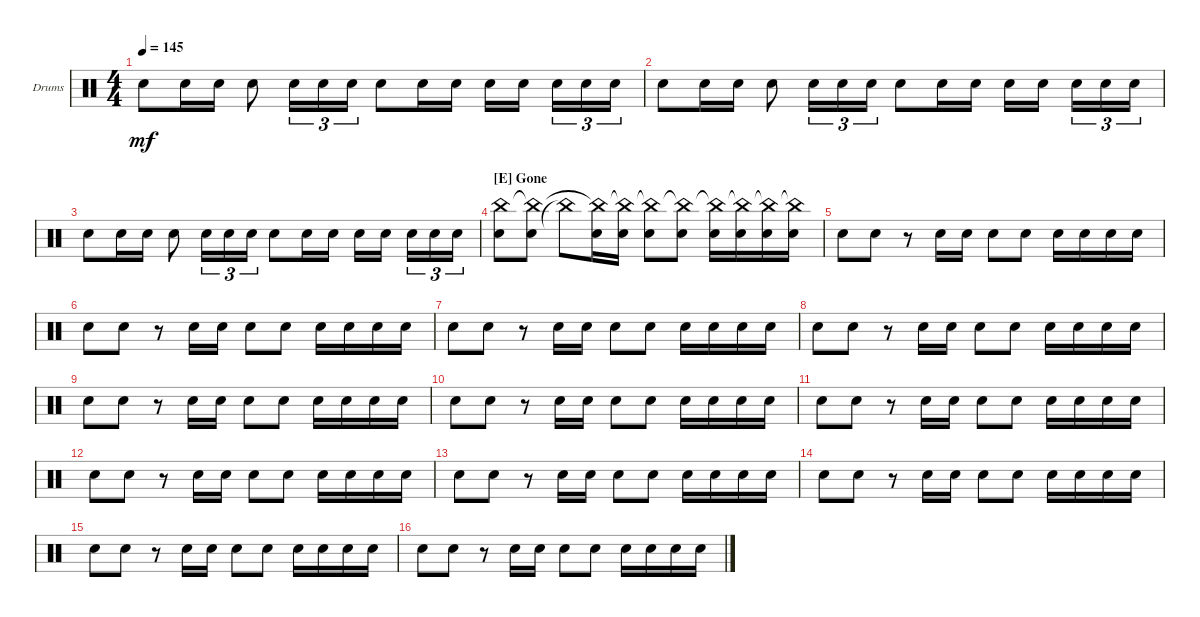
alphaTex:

\defaultSystemsLayout 4
\bracketExtendMode groupsimilarinstruments
\firstSystemTrackNameOrientation horizontal
\otherSystemsTrackNameOrientation horizontal
\track ("Drumkit" "Drums") {instrument percussion}
\staff {score}
\articulation defaults
\ts (4 4)
\tempo 145
\clef neutral
\scale
0.333333
\ks c "Snare (hit) 2".8{dy mf} "Snare (hit) 2".16 "Snare (hit) 2".16 "Snare (hit) 2".8 "Snare (hit) 2".16{tu (3 2)} "Snare (hit) 2".16{tu (3 2)} "Snare (hit) 2".16{tu (3 2)} "Snare (hit) 2".8 "Snare (hit) 2".16 "Snare (hit) 2".16 "Snare (hit) 2".16 "Snare (hit) 2".16 "Snare (hit) 2".16{tu (3 2)} "Snare (hit) 2".16{tu (3 2)} "Snare (hit) 2".16{tu (3 2)}
|
\scale
0.333333 "Snare (hit) 2".8 "Snare (hit) 2".16 "Snare (hit) 2".16 "Snare (hit) 2".8 "Snare (hit) 2".16{tu (3 2)} "Snare (hit) 2".16{tu (3 2)} "Snare (hit) 2".16{tu (3 2)} "Snare (hit) 2".8 "Snare (hit) 2".16 "Snare (hit) 2".16 "Snare (hit) 2".16 "Snare (hit) 2".16 "Snare (hit) 2".16{tu (3 2)} "Snare (hit) 2".16{tu (3 2)} "Snare (hit) 2".16{tu (3 2)} |
\scale
0.333333 "Snare (hit) 2".8 "Snare (hit) 2".16 "Snare (hit) 2".16 "Snare (hit) 2".8 "Snare (hit) 2".16{tu (3 2)} "Snare (hit) 2".16{tu (3 2)} "Snare (hit) 2".16{tu (3 2)} "Snare (hit) 2".8 "Snare (hit) 2".16 "Snare (hit) 2".16 "Snare (hit) 2".16 "Snare (hit) 2".16 "Snare (hit) 2".16{tu (3 2)} "Snare (hit) 2".16{tu (3 2)} "Snare (hit) 2".16{tu (3 2)} |
\section ("E" "Gone")
\scale
0.333333 ("Snare (hit) 2" "China (hit)").8 ("Snare (hit) 2" "China (hit)"{t}).8 "China (hit)"{t}.8 ("Snare (hit) 2" "China (hit)"{t}).16 ("Snare (hit) 2" "China (hit)"{t}).16 ("Snare (hit) 2" "China (hit)"{t}).8 ("Snare (hit) 2" "China (hit)"{t}).8 ("Snare (hit) 2" "China (hit)"{t}).16 ("Snare (hit) 2" "China (hit)"{t}).16 ("Snare (hit) 2" "China (hit)"{t}).16 ("Snare (hit) 2" "China (hit)"{t}).16 |
\scale
0.333333 "Snare (hit) 2".8 "Snare (hit) 2".8 r.8 "Snare (hit) 2".16 "Snare (hit) 2".16 "Snare (hit) 2".8 "Snare (hit) 2".8 "Snare (hit) 2".16 "Snare (hit) 2".16 "Snare (hit) 2".16 "Snare (hit) 2".16 |
\scale
0.333333 "Snare (hit) 2".8 "Snare (hit) 2".8 r.8 "Snare (hit) 2".16 "Snare (hit) 2".16 "Snare (hit) 2".8 "Snare (hit) 2".8 "Snare (hit) 2".16 "Snare (hit) 2".16 "Snare (hit) 2".16 "Snare (hit) 2".16 |
\scale
0.333333 "Snare (hit) 2".8 "Snare (hit) 2".8 r.8 "Snare (hit) 2".16 "Snare (hit) 2".16 "Snare (hit) 2".8 "Snare (hit) 2".8 "Snare (hit) 2".16 "Snare (hit) 2".16 "Snare (hit) 2".16 "Snare (hit) 2".16 |
\scale
0.333333 "Snare (hit) 2".8 "Snare (hit) 2".8 r.8 "Snare (hit) 2".16 "Snare (hit) 2".16 "Snare (hit) 2".8 "Snare (hit) 2".8 "Snare (hit) 2".16 "Snare (hit) 2".16 "Snare (hit) 2".16 "Snare (hit) 2".16 |
\scale
0.333333 "Snare (hit) 2".8 "Snare (hit) 2".8 r.8 "Snare (hit) 2".16 "Snare (hit) 2".16 "Snare (hit) 2".8 "Snare (hit) 2".8 "Snare (hit) 2".16 "Snare (hit) 2".16 "Snare (hit) 2".16 "Snare (hit) 2".16 |
\scale
0.333333 "Snare (hit) 2".8 "Snare (hit) 2".8 r.8 "Snare (hit) 2".16 "Snare (hit) 2".16 "Snare (hit) 2".8 "Snare (hit) 2".8 "Snare (hit) 2".16 "Snare (hit) 2".16 "Snare (hit) 2".16 "Snare (hit) 2".16 |
\scale
0.333333 "Snare (hit) 2".8 "Snare (hit) 2".8 r.8 "Snare (hit) 2".16 "Snare (hit) 2".16 "Snare (hit) 2".8 "Snare (hit) 2".8 "Snare (hit) 2".16 "Snare (hit) 2".16 "Snare (hit) 2".16 "Snare (hit) 2".16 |
\scale
0.333333 "Snare (hit) 2".8 "Snare (hit) 2".8 r.8 "Snare (hit) 2".16 "Snare (hit) 2".16 "Snare (hit) 2".8 "Snare (hit) 2".8 "Snare (hit) 2".16 "Snare (hit) 2".16 "Snare (hit) 2".16 "Snare (hit) 2".16 |
\scale
0.333333 "Snare (hit) 2".8 "Snare (hit) 2".8 r.8 "Snare (hit) 2".16 "Snare (hit) 2".16 "Snare (hit) 2".8 "Snare (hit) 2".8 "Snare (hit) 2".16 "Snare (hit) 2".16 "Snare (hit) 2".16 "Snare (hit) 2".16 |
\scale
0.333333 "Snare (hit) 2".8 "Snare (hit) 2".8 r.8 "Snare (hit) 2".16 "Snare (hit) 2".16 "Snare (hit) 2".8 "Snare (hit) 2".8 "Snare (hit) 2".16 "Snare (hit) 2".16 "Snare (hit) 2".16 "Snare (hit) 2".16 |
\scale
0.333333 "Snare (hit) 2".8 "Snare (hit) 2".8 r.8 "Snare (hit) 2".16 "Snare (hit) 2".16 "Snare (hit) 2".8 "Snare (hit) 2".8 "Snare (hit) 2".16 "Snare (hit) 2".16 "Snare (hit) 2".16 "Snare (hit) 2".16 |
\scale
0.333333 "Snare (hit) 2".8 "Snare (hit) 2".8 r.8 "Snare (hit) 2".16 "Snare (hit) 2".16 "Snare (hit) 2".8 "Snare (hit) 2".8 "Snare (hit) 2".16 "Snare (hit) 2".16 "Snare (hit) 2".16 "Snare (hit) 2".16
